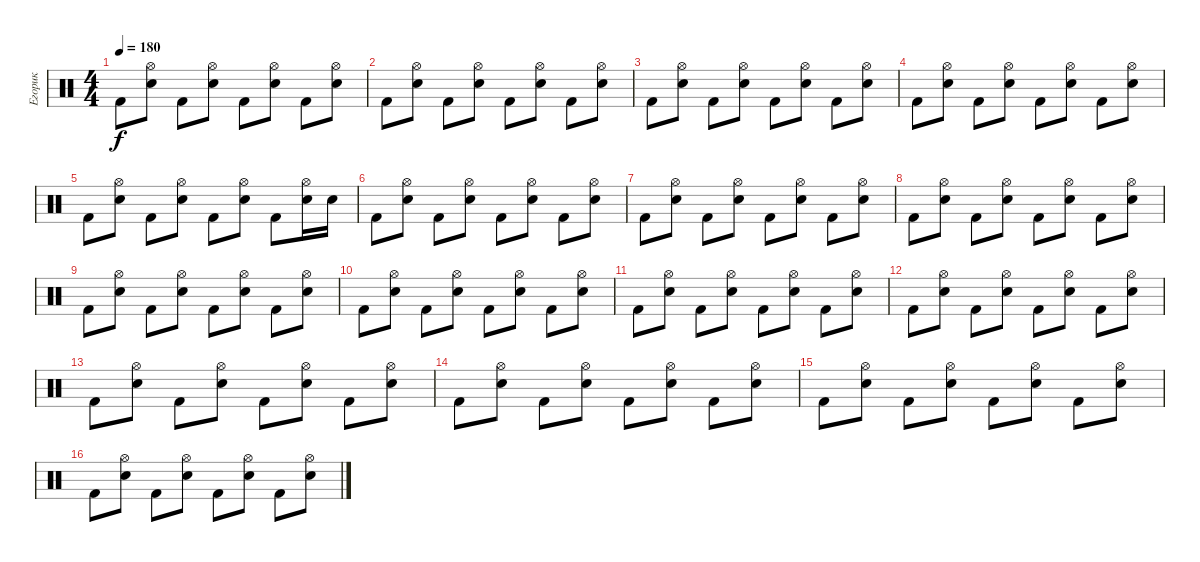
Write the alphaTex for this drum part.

\track ("Егорик" "Егорик") {instrument percussion}
\staff {score}
\articulation defaults
\ts (4 4)
\tempo 180
\clef neutral
\ks c "Kick (hit) 2".8{dy f}
("Hi-Hat (open)" "Electric Snare (hit)").8 "Kick (hit) 2".8 ("Hi-Hat (open)" "Electric Snare (hit)").8 "Kick (hit) 2".8 ("Hi-Hat (open)" "Electric Snare (hit)").8 "Kick (hit) 2".8 ("Hi-Hat (open)" "Electric Snare (hit)").8 |
"Kick (hit) 2".8 ("Hi-Hat (open)" "Electric Snare (hit)").8 "Kick (hit) 2".8 ("Hi-Hat (open)" "Electric Snare (hit)").8 "Kick (hit) 2".8 ("Hi-Hat (open)" "Electric Snare (hit)").8 "Kick (hit) 2".8 ("Hi-Hat (open)" "Electric Snare (hit)").8 |
"Kick (hit) 2".8 ("Hi-Hat (open)" "Electric Snare (hit)").8 "Kick (hit) 2".8 ("Hi-Hat (open)" "Electric Snare (hit)").8 "Kick (hit) 2".8 ("Hi-Hat (open)" "Electric Snare (hit)").8 "Kick (hit) 2".8 ("Hi-Hat (open)" "Electric Snare (hit)").8 |
"Kick (hit) 2".8 ("Hi-Hat (open)" "Electric Snare (hit)").8 "Kick (hit) 2".8 ("Hi-Hat (open)" "Electric Snare (hit)").8 "Kick (hit) 2".8 ("Hi-Hat (open)" "Electric Snare (hit)").8 "Kick (hit) 2".8 ("Hi-Hat (open)" "Electric Snare (hit)").8 |
"Kick (hit) 2".8 ("Hi-Hat (open)" "Electric Snare (hit)").8 "Kick (hit) 2".8 ("Hi-Hat (open)" "Electric Snare (hit)").8 "Kick (hit) 2".8 ("Hi-Hat (open)" "Electric Snare (hit)").8 "Kick (hit) 2".8 ("Hi-Hat (open)" "Electric Snare (hit)").16 "Electric Snare (hit)".16 |
"Kick (hit) 2".8 ("Hi-Hat (open)" "Electric Snare (hit)").8 "Kick (hit) 2".8 ("Hi-Hat (open)" "Electric Snare (hit)").8 "Kick (hit) 2".8 ("Hi-Hat (open)" "Electric Snare (hit)").8 "Kick (hit) 2".8 ("Hi-Hat (open)" "Electric Snare (hit)").8 |
"Kick (hit) 2".8 ("Hi-Hat (open)" "Electric Snare (hit)").8 "Kick (hit) 2".8 ("Hi-Hat (open)" "Electric Snare (hit)").8 "Kick (hit) 2".8 ("Hi-Hat (open)" "Electric Snare (hit)").8 "Kick (hit) 2".8 ("Hi-Hat (open)" "Electric Snare (hit)").8 |
"Kick (hit) 2".8 ("Hi-Hat (open)" "Electric Snare (hit)").8 "Kick (hit) 2".8 ("Hi-Hat (open)" "Electric Snare (hit)").8 "Kick (hit) 2".8 ("Hi-Hat (open)" "Electric Snare (hit)").8 "Kick (hit) 2".8 ("Hi-Hat (open)" "Electric Snare (hit)").8 |
"Kick (hit) 2".8 ("Hi-Hat (open)" "Electric Snare (hit)").8 "Kick (hit) 2".8 ("Hi-Hat (open)" "Electric Snare (hit)").8 "Kick (hit) 2".8 ("Hi-Hat (open)" "Electric Snare (hit)").8 "Kick (hit) 2".8 ("Hi-Hat (open)" "Electric Snare (hit)").8 |
"Kick (hit) 2".8 ("Hi-Hat (open)" "Electric Snare (hit)").8 "Kick (hit) 2".8 ("Hi-Hat (open)" "Electric Snare (hit)").8 "Kick (hit) 2".8 ("Hi-Hat (open)" "Electric Snare (hit)").8 "Kick (hit) 2".8 ("Hi-Hat (open)" "Electric Snare (hit)").8 |
"Kick (hit) 2".8 ("Hi-Hat (open)" "Electric Snare (hit)").8 "Kick (hit) 2".8 ("Hi-Hat (open)" "Electric Snare (hit)").8 "Kick (hit) 2".8 ("Hi-Hat (open)" "Electric Snare (hit)").8 "Kick (hit) 2".8 ("Hi-Hat (open)" "Electric Snare (hit)").8 |
"Kick (hit) 2".8 ("Hi-Hat (open)" "Electric Snare (hit)").8 "Kick (hit) 2".8 ("Hi-Hat (open)" "Electric Snare (hit)").8 "Kick (hit) 2".8 ("Hi-Hat (open)" "Electric Snare (hit)").8 "Kick (hit) 2".8 ("Hi-Hat (open)" "Electric Snare (hit)").8 |
"Kick (hit) 2".8 ("Hi-Hat (open)" "Electric Snare (hit)").8 "Kick (hit) 2".8 ("Hi-Hat (open)" "Electric Snare (hit)").8 "Kick (hit) 2".8 ("Hi-Hat (open)" "Electric Snare (hit)").8 "Kick (hit) 2".8 ("Hi-Hat (open)" "Electric Snare (hit)").8 |
"Kick (hit) 2".8 ("Hi-Hat (open)" "Electric Snare (hit)").8 "Kick (hit) 2".8 ("Hi-Hat (open)" "Electric Snare (hit)").8 "Kick (hit) 2".8 ("Hi-Hat (open)" "Electric Snare (hit)").8 "Kick (hit) 2".8 ("Hi-Hat (open)" "Electric Snare (hit)").8 |
"Kick (hit) 2".8 ("Hi-Hat (open)" "Electric Snare (hit)").8 "Kick (hit) 2".8 ("Hi-Hat (open)" "Electric Snare (hit)").8 "Kick (hit) 2".8 ("Hi-Hat (open)" "Electric Snare (hit)").8 "Kick (hit) 2".8 ("Hi-Hat (open)" "Electric Snare (hit)").8 |
"Kick (hit) 2".8 ("Hi-Hat (open)" "Electric Snare (hit)").8 "Kick (hit) 2".8 ("Hi-Hat (open)" "Electric Snare (hit)").8 "Kick (hit) 2".8 ("Hi-Hat (open)" "Electric Snare (hit)").8 "Kick (hit) 2".8 ("Hi-Hat (open)" "Electric Snare (hit)").8
